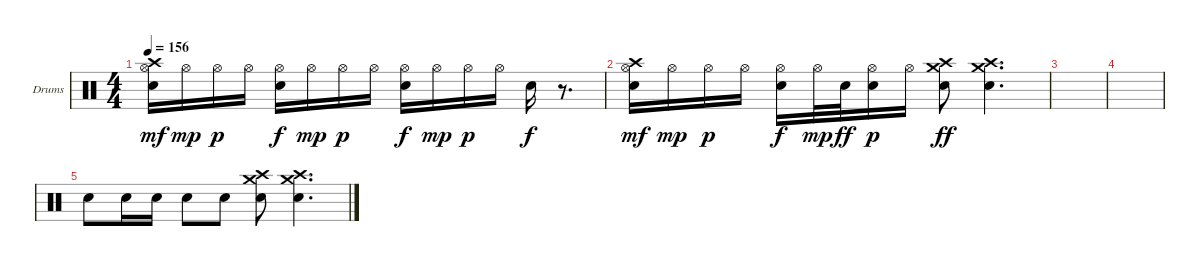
\bracketExtendMode groupsimilarinstruments
\firstSystemTrackNameOrientation horizontal
\otherSystemsTrackNameOrientation horizontal
\track ("Drums" "Drums") {instrument percussion}
\staff {score}
\articulation defaults
\ts (4 4)
\tempo 156
\clef neutral
\ks c
("Crash high (hit)" "Hi-Hat (open)" "Snare (hit) 2").16{dy mf} "Hi-Hat (open)".16{dy mp} "Hi-Hat (open)".16{dy p} "Hi-Hat (open)".16 ("Hi-Hat (open)" "Snare (hit) 2").16{dy f} "Hi-Hat (open)".16{dy mp} "Hi-Hat (open)".16{dy p} "Hi-Hat (open)".16 ("Hi-Hat (open)" "Snare (hit) 2").16{dy f} "Hi-Hat (open)".16{dy mp} "Hi-Hat (open)".16{dy p} "Hi-Hat (open)".16 "Snare (hit) 2".16{dy f} r.8{d} |
("Crash high (hit)" "Hi-Hat (open)" "Snare (hit) 2").16{dy mf} "Hi-Hat (open)".16{dy mp} "Hi-Hat (open)".16{dy p} "Hi-Hat (open)".16 ("Hi-Hat (open)" "Snare (hit) 2").16{dy f} "Hi-Hat (open)".32{dy mp} "Snare (hit) 2".32{dy ff} ("Hi-Hat (open)" "Snare (hit) 2").16{dy p} "Hi-Hat (open)".16 ("Crash medium (hit)" "Crash high (hit)" "Snare (hit) 2").8{dy ff} ("Crash medium (hit)" "Crash high (hit)" "Snare (hit) 2").4{d} |
|
|
"Snare (hit) 2".8 "Snare (hit) 2".16 "Snare (hit) 2".16 "Snare (hit) 2".8 "Snare (hit) 2".8 ("Crash medium (hit)" "Crash high (hit)" "Snare (hit) 2").8 ("Crash medium (hit)" "Crash high (hit)" "Snare (hit) 2").4{d}
